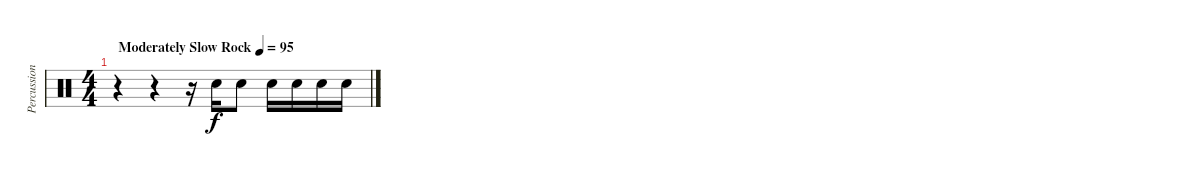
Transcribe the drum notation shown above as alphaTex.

\track ("Percussion" "Percussion") {instrument percussion}
\staff {score}
\articulation defaults
\ts (4 4)
\tempo (95 "Moderately Slow Rock")
\clef neutral
\ks c
r.4{dy f} r.4 r.16 "Snare (hit) 2".16 "Snare (hit) 2".8 "Snare (hit) 2".16 "Snare (hit) 2".16 "Snare (hit) 2".16 "Snare (hit) 2".16
